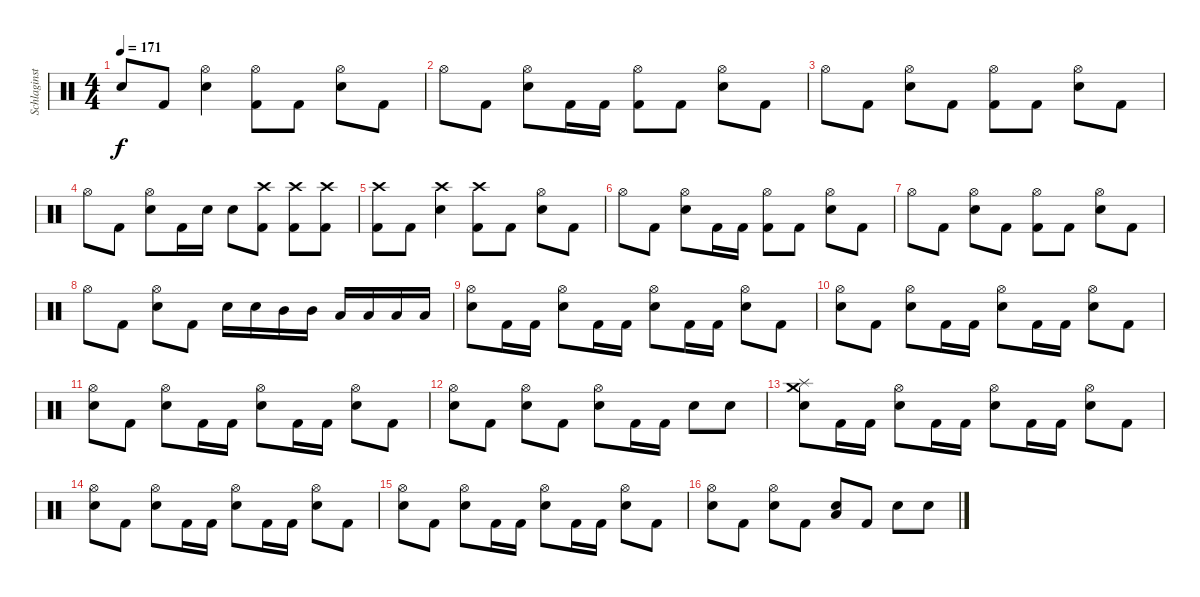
\track ("Schlaginstrumente - Auswahl" "Schlaginst") {instrument percussion}
\staff {score}
\articulation defaults
\ts (4 4)
\tempo 171
\clef neutral
\ks c "Snare (hit)"{t}.8{dy f} "Kick (hit) 2".8
("Hi-Hat (open)" "Snare (hit) 2").4 ("Hi-Hat (open)" "Kick (hit) 2").8 "Kick (hit) 2".8 ("Hi-Hat (open)" "Snare (hit) 2").8 "Kick (hit) 2".8 |
"Hi-Hat (open)".8 "Kick (hit) 2".8 ("Hi-Hat (open)" "Snare (hit) 2").8 "Kick (hit) 2".16 "Kick (hit) 2".16 ("Hi-Hat (open)" "Kick (hit) 2").8 "Kick (hit) 2".8 ("Hi-Hat (open)" "Snare (hit) 2").8 "Kick (hit) 2".8 |
"Hi-Hat (open)".8 "Kick (hit) 2".8 ("Hi-Hat (open)" "Snare (hit) 2").8 "Kick (hit) 2".8 ("Hi-Hat (open)" "Kick (hit) 2").8 "Kick (hit) 2".8 ("Hi-Hat (open)" "Snare (hit) 2").8 "Kick (hit) 2".8 |
"Hi-Hat (open)".8 "Kick (hit) 2".8 ("Hi-Hat (open)" "Snare (hit) 2").8 "Kick (hit) 2".16 "Snare (hit) 2".16 "Snare (hit) 2".8 ("Crash high (hit)" "Kick (hit) 2").8 ("Crash high (hit)" "Kick (hit) 2").8 ("Crash high (hit)" "Kick (hit) 2").8 |
("Crash high (hit)" "Kick (hit) 2").8 "Kick (hit) 2".8 ("Crash high (hit)" "Snare (hit) 2").4 ("Crash high (hit)" "Kick (hit) 2").8 "Kick (hit) 2".8 ("Hi-Hat (open)" "Snare (hit) 2").8 "Kick (hit) 2".8 |
"Hi-Hat (open)".8 "Kick (hit) 2".8 ("Hi-Hat (open)" "Snare (hit) 2").8 "Kick (hit) 2".16 "Kick (hit) 2".16 ("Hi-Hat (open)" "Kick (hit) 2").8 "Kick (hit) 2".8 ("Hi-Hat (open)" "Snare (hit) 2").8 "Kick (hit) 2".8 |
"Hi-Hat (open)".8 "Kick (hit) 2".8 ("Hi-Hat (open)" "Snare (hit) 2").8 "Kick (hit) 2".8 ("Hi-Hat (open)" "Kick (hit) 2").8 "Kick (hit) 2".8 ("Hi-Hat (open)" "Snare (hit) 2").8 "Kick (hit) 2".8 |
"Hi-Hat (open)".8 "Kick (hit) 2".8 ("Hi-Hat (open)" "Snare (hit) 2").8 "Kick (hit) 2".8 "Snare (hit) 2".16 "Snare (hit) 2".16 "Mid Tom (hit)".16 "Mid Tom (hit)".16 "Low Tom (hit)".16 "Low Tom (hit)".16 "Low Floor Tom (hit)".16 "Low Floor Tom (hit)".16 |
("Hi-Hat (open)" "Snare (hit) 2").8 "Kick (hit) 2".16 "Kick (hit) 2".16 ("Hi-Hat (open)" "Snare (hit) 2").8 "Kick (hit) 2".16 "Kick (hit) 2".16 ("Hi-Hat (open)" "Snare (hit) 2").8 "Kick (hit) 2".16 "Kick (hit) 2".16 ("Hi-Hat (open)" "Snare (hit) 2").8 "Kick (hit) 2".8 |
("Hi-Hat (open)" "Snare (hit) 2").8 "Kick (hit) 2".8 ("Hi-Hat (open)" "Snare (hit) 2").8 "Kick (hit) 2".16 "Kick (hit) 2".16 ("Hi-Hat (open)" "Snare (hit) 2").8 "Kick (hit) 2".16 "Kick (hit) 2".16 ("Hi-Hat (open)" "Snare (hit) 2").8 "Kick (hit) 2".8 |
("Hi-Hat (open)" "Snare (hit) 2").8 "Kick (hit) 2".8 ("Hi-Hat (open)" "Snare (hit) 2").8 "Kick (hit) 2".16 "Kick (hit) 2".16 ("Hi-Hat (open)" "Snare (hit) 2").8 "Kick (hit) 2".16 "Kick (hit) 2".16 ("Hi-Hat (open)" "Snare (hit) 2").8 "Kick (hit) 2".8 |
("Hi-Hat (open)" "Snare (hit) 2").8 "Kick (hit) 2".8 ("Hi-Hat (open)" "Snare (hit) 2").8 "Kick (hit) 2".8 ("Hi-Hat (open)" "Snare (hit) 2").8 "Kick (hit) 2".16 "Kick (hit) 2".16 "Snare (hit) 2".8 "Snare (hit) 2".8 |
("Crash medium (hit)" "Splash (hit)" "Snare (hit) 2").8 "Kick (hit) 2".16 "Kick (hit) 2".16 ("Hi-Hat (open)" "Snare (hit) 2").8 "Kick (hit) 2".16 "Kick (hit) 2".16 ("Hi-Hat (open)" "Snare (hit) 2").8 "Kick (hit) 2".16 "Kick (hit) 2".16 ("Hi-Hat (open)" "Snare (hit) 2").8 "Kick (hit) 2".8 |
("Hi-Hat (open)" "Snare (hit) 2").8 "Kick (hit) 2".8 ("Hi-Hat (open)" "Snare (hit) 2").8 "Kick (hit) 2".16 "Kick (hit) 2".16 ("Hi-Hat (open)" "Snare (hit) 2").8 "Kick (hit) 2".16 "Kick (hit) 2".16 ("Hi-Hat (open)" "Snare (hit) 2").8 "Kick (hit) 2".8 |
("Hi-Hat (open)" "Snare (hit) 2").8 "Kick (hit) 2".8 ("Hi-Hat (open)" "Snare (hit) 2").8 "Kick (hit) 2".16 "Kick (hit) 2".16 ("Hi-Hat (open)" "Snare (hit) 2").8 "Kick (hit) 2".16 "Kick (hit) 2".16 ("Hi-Hat (open)" "Snare (hit) 2").8 "Kick (hit) 2".8 |
("Hi-Hat (open)" "Snare (hit) 2").8 "Kick (hit) 2".8 ("Hi-Hat (open)" "Snare (hit) 2").8 "Kick (hit) 2".8 ("Low Floor Tom (hit)" "Snare (hit) 2").8 "Kick (hit) 2".8 "Snare (hit) 2".8 "Snare (hit) 2".8
